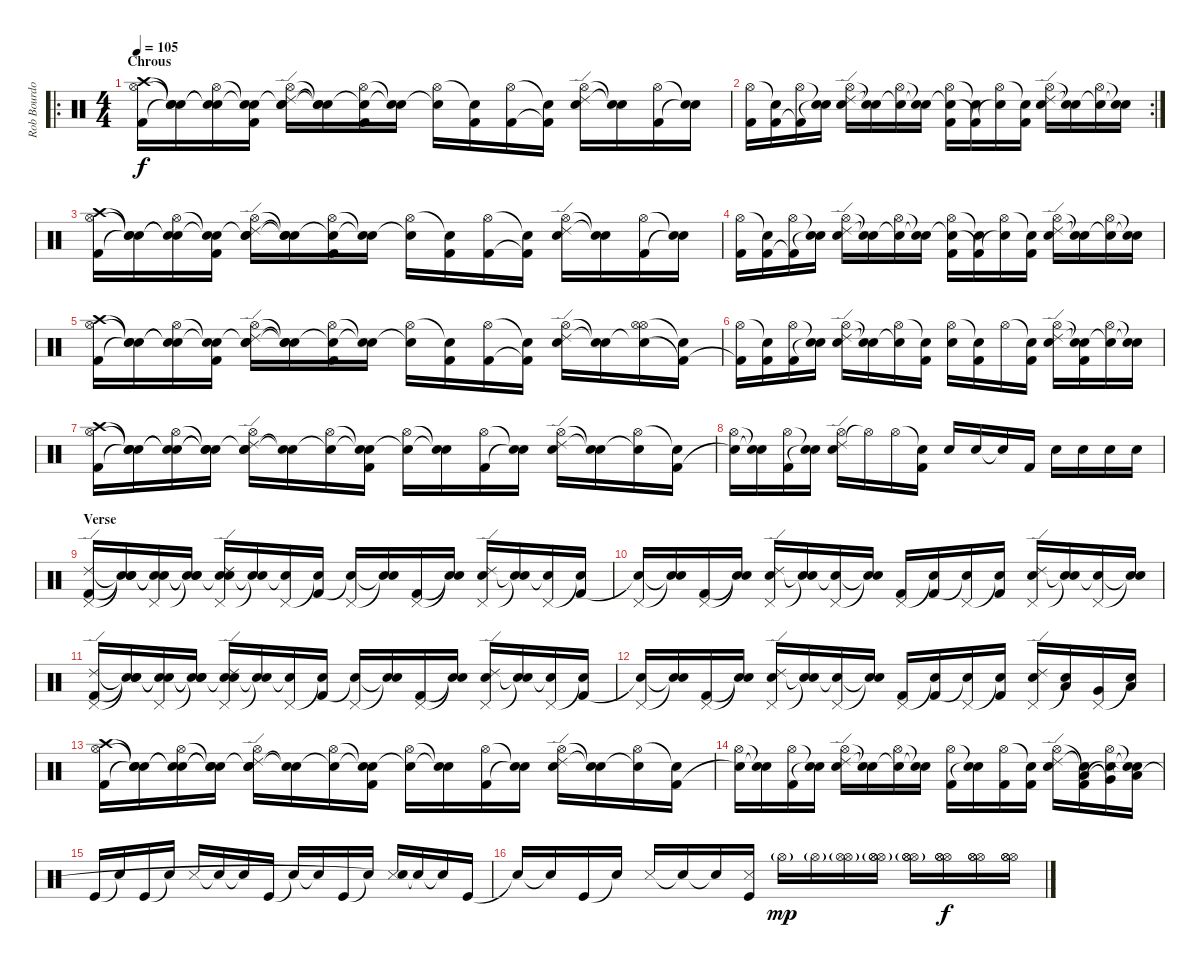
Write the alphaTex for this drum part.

\track ("Rob Bourdon" "Rob Bourdo") {instrument percussion}
\staff {score}
\articulation defaults
\ro
\ts (4 4)
\section ("" "Chrous")
\tempo 105
\clef neutral
\ks c
("Crash high (hit)" "Hi-Hat (open)" "Kick (hit) 2").16{dy f} ("Snare (hit)"{t} "Snare (hit)"{t} "Snare (hit)"{t}).16 ("Snare (hit)"{t} "Hi-Hat (open)" "Snare (hit)"{t}).16 ("Snare (hit)"{t} "Snare (hit)"{t} "Kick (hit) 2").16 ("Snare (hit)"{t} "Hi-Hat (open)" "Ride (edge) 2" "Electric Snare (hit)").16 ("Snare (hit)"{t} "Snare (hit)"{t} "Snare (hit)"{t}).16 ("Snare (hit)"{t} "Hi-Hat (open)" "Kick (hit) 2").16 ("Snare (hit)"{t} "Snare (hit)"{t}).16 ("Hi-Hat (open)" "Snare (hit)"{t}).16 ("Snare (hit)"{t} "Kick (hit) 2").16 ("Hi-Hat (open)" "Kick (hit) 2").16 ("Snare (hit)"{t} "Kick (hit) 2"{t}).16 ("Hi-Hat (open)" "Ride (edge) 2" "Electric Snare (hit)").16 ("Snare (hit)"{t} "Snare (hit)"{t}).16 ("Hi-Hat (open)" "Kick (hit) 2").16 ("Snare (hit)"{t} "Snare (hit)"{t}).16 |
\rc 2
("Hi-Hat (open)" "Kick (hit) 2").16 ("Snare (hit)"{t} "Kick (hit) 2").16 ("Hi-Hat (open)" "Kick (hit) 2"{t}).16 ("Snare (hit)"{t} "Snare (hit)"{t}).16 ("Hi-Hat (open)" "Ride (edge) 2" "Electric Snare (hit)").16 ("Snare (hit)"{t} "Snare (hit)"{t}).16 ("Hi-Hat (open)" "Snare (hit)"{t}).16 ("Snare (hit)"{t} "Snare (hit)"{t}).16 ("Hi-Hat (open)" "Snare (hit)"{t} "Kick (hit) 2").16 ("Snare (hit)"{t} "Kick (hit) 2"{t}).16 ("Hi-Hat (open)" "Snare (hit)"{t}).16 ("Snare (hit)"{t} "Kick (hit) 2").16 ("Hi-Hat (open)" "Ride (edge) 2" "Electric Snare (hit)").16 ("Snare (hit)"{t} "Snare (hit)"{t}).16 ("Hi-Hat (open)" "Snare (hit)"{t}).16 ("Snare (hit)"{t} "Snare (hit)"{t}).16 |
("Crash high (hit)" "Hi-Hat (open)" "Kick (hit) 2").16 ("Snare (hit)"{t} "Snare (hit)"{t} "Snare (hit)"{t}).16 ("Snare (hit)"{t} "Hi-Hat (open)" "Snare (hit)"{t}).16 ("Snare (hit)"{t} "Snare (hit)"{t} "Kick (hit) 2").16 ("Snare (hit)"{t} "Hi-Hat (open)" "Ride (edge) 2" "Electric Snare (hit)").16 ("Snare (hit)"{t} "Snare (hit)"{t} "Snare (hit)"{t}).16 ("Snare (hit)"{t} "Hi-Hat (open)" "Kick (hit) 2").16 ("Snare (hit)"{t} "Snare (hit)"{t}).16 ("Hi-Hat (open)" "Snare (hit)"{t}).16 ("Snare (hit)"{t} "Kick (hit) 2").16 ("Hi-Hat (open)" "Kick (hit) 2").16 ("Snare (hit)"{t} "Kick (hit) 2"{t}).16 ("Hi-Hat (open)" "Ride (edge) 2" "Electric Snare (hit)").16 ("Snare (hit)"{t} "Snare (hit)"{t}).16 ("Hi-Hat (open)" "Kick (hit) 2").16 ("Snare (hit)"{t} "Snare (hit)"{t}).16 |
("Hi-Hat (open)" "Kick (hit) 2").16 ("Snare (hit)"{t} "Kick (hit) 2").16 ("Hi-Hat (open)" "Kick (hit) 2"{t}).16 ("Snare (hit)"{t} "Snare (hit)"{t}).16 ("Hi-Hat (open)" "Ride (edge) 2" "Electric Snare (hit)").16 ("Snare (hit)"{t} "Snare (hit)"{t}).16 ("Hi-Hat (open)" "Snare (hit)"{t}).16 ("Snare (hit)"{t} "Snare (hit)"{t}).16 ("Hi-Hat (open)" "Snare (hit)"{t} "Kick (hit) 2").16 ("Snare (hit)"{t} "Kick (hit) 2"{t}).16 ("Hi-Hat (open)" "Snare (hit)"{t}).16 ("Snare (hit)"{t} "Kick (hit) 2").16 ("Hi-Hat (open)" "Ride (edge) 2" "Electric Snare (hit)").16 ("Snare (hit)"{t} "Snare (hit)"{t}).16 ("Hi-Hat (open)" "Snare (hit)"{t}).16 ("Snare (hit)"{t} "Snare (hit)"{t}).16 |
("Crash high (hit)" "Hi-Hat (open)" "Kick (hit) 2").16 ("Snare (hit)"{t} "Snare (hit)"{t} "Snare (hit)"{t}).16 ("Snare (hit)"{t} "Hi-Hat (open)" "Snare (hit)"{t}).16 ("Snare (hit)"{t} "Snare (hit)"{t} "Kick (hit) 2").16 ("Snare (hit)"{t} "Hi-Hat (open)" "Ride (edge) 2" "Electric Snare (hit)").16 ("Snare (hit)"{t} "Snare (hit)"{t} "Snare (hit)"{t}).16 ("Snare (hit)"{t} "Hi-Hat (open)" "Kick (hit) 2").16 ("Snare (hit)"{t} "Snare (hit)"{t}).16 ("Hi-Hat (open)" "Snare (hit)"{t}).16 ("Snare (hit)"{t} "Kick (hit) 2").16 ("Hi-Hat (open)" "Kick (hit) 2").16 ("Snare (hit)"{t} "Kick (hit) 2"{t}).16 ("Hi-Hat (open)" "Ride (edge) 2" "Electric Snare (hit)").16 ("Snare (hit)"{t} "Snare (hit)"{t}).16 ("Hi-Hat (open)" "Snare (hit)"{t} "Hi-Hat (open)").16 ("Snare (hit)"{t} "Kick (hit) 2"{t}).16 |
("Hi-Hat (open)" "Kick (hit) 2"{t}).16 ("Snare (hit)"{t} "Kick (hit) 2").16 ("Hi-Hat (open)" "Kick (hit) 2").16 ("Snare (hit)"{t} "Snare (hit)"{t}).16 ("Hi-Hat (open)" "Ride (edge) 2" "Electric Snare (hit)").16 ("Snare (hit)"{t} "Snare (hit)"{t}).16 ("Hi-Hat (open)" "Snare (hit)"{t}).16 ("Snare (hit)"{t} "Kick (hit) 2").16 ("Hi-Hat (open)" "Electric Snare (hit)").16 ("Snare (hit)"{t} "Kick (hit) 2").16 "Hi-Hat (open)".16 ("Snare (hit)"{t} "Kick (hit) 2").16 ("Hi-Hat (open)" "Ride (edge) 2" "Electric Snare (hit)").16 ("Snare (hit)"{t} "Snare (hit)"{t} "Kick (hit) 2").16 ("Hi-Hat (open)" "Snare (hit)"{t}).16 ("Snare (hit)"{t} "Snare (hit)"{t}).16 |
("Crash high (hit)" "Hi-Hat (open)" "Kick (hit) 2").16 ("Snare (hit)"{t} "Snare (hit)"{t} "Snare (hit)"{t}).16 ("Snare (hit)"{t} "Hi-Hat (open)" "Snare (hit)"{t}).16 ("Snare (hit)"{t} "Snare (hit)"{t} "Snare (hit)"{t}).16 ("Snare (hit)"{t} "Ride (edge) 2" "Hi-Hat (open)" "Electric Snare (hit)").16 ("Snare (hit)"{t} "Snare (hit)"{t}).16 ("Hi-Hat (open)" "Snare (hit)"{t}).16 ("Snare (hit)"{t} "Snare (hit)"{t} "Kick (hit) 2").16 ("Hi-Hat (open)" "Snare (hit)"{t}).16 ("Snare (hit)"{t} "Snare (hit)"{t}).16 ("Hi-Hat (open)" "Kick (hit) 2").16 ("Snare (hit)"{t} "Snare (hit)"{t}).16 ("Ride (edge) 2" "Hi-Hat (open)" "Electric Snare (hit)").16 ("Snare (hit)"{t} "Snare (hit)"{t}).16 ("Hi-Hat (open)" "Snare (hit)"{t}).16 ("Snare (hit)"{t} "Kick (hit) 2").16 |
("Hi-Hat (open)" "Snare (hit)"{t}).16 ("Snare (hit)"{t} "Snare (hit)"{t}).16 ("Hi-Hat (open)" "Kick (hit) 2").16 ("Snare (hit)"{t} "Snare (hit)"{t}).16 ("Ride (edge) 2" "Hi-Hat (open)" "Electric Snare (hit)").16 "Hi-Hat (open)"{t}.16 "Hi-Hat (open)".16 ("Snare (hit)"{t} "Kick (hit) 2").16 "Electric Snare (hit)".16 "Electric Snare (hit)".16 "Snare (hit)"{t}.16 "Kick (hit) 2".16 "Electric Snare (hit)".16 "Electric Snare (hit)".16 "Electric Snare (hit)".16 "Electric Snare (hit)".16 |
\section ("" "Verse")
("Ride (edge) 2" "Pedal Hi-Hat (hit)" "Kick (hit) 2").16 ("Snare (hit)"{t} "Snare (hit)"{t} "Snare (hit)"{t}).16 ("Snare (hit)"{t} "Pedal Hi-Hat (hit)" "Snare (hit)"{t}).16 ("Snare (hit)"{t} "Snare (hit)"{t} "Snare (hit)"{t}).16 ("Snare (hit)"{t} "Pedal Hi-Hat (hit)" "Ride (edge) 2" "Electric Snare (hit)").16 ("Snare (hit)"{t} "Snare (hit)"{t}).16 ("Pedal Hi-Hat (hit)" "Snare (hit)"{t}).16 ("Snare (hit)"{t} "Kick (hit) 2").16 ("Pedal Hi-Hat (hit)" "Snare (hit)"{t}).16 ("Snare (hit)"{t} "Snare (hit)"{t}).16 ("Pedal Hi-Hat (hit)" "Kick (hit) 2").16 ("Snare (hit)"{t} "Snare (hit)"{t}).16 ("Pedal Hi-Hat (hit)" "Ride (edge) 2" "Electric Snare (hit)").16 ("Snare (hit)"{t} "Snare (hit)"{t}).16 ("Pedal Hi-Hat (hit)" "Snare (hit)"{t}).16 ("Snare (hit)"{t} "Kick (hit) 2").16 |
("Pedal Hi-Hat (hit)" "Snare (hit)"{t}).16 ("Snare (hit)"{t} "Snare (hit)"{t}).16 ("Pedal Hi-Hat (hit)" "Kick (hit) 2").16 ("Snare (hit)"{t} "Snare (hit)"{t}).16 ("Pedal Hi-Hat (hit)" "Ride (edge) 2" "Electric Snare (hit)").16 ("Snare (hit)"{t} "Snare (hit)"{t}).16 ("Pedal Hi-Hat (hit)" "Snare (hit)"{t}).16 ("Snare (hit)"{t} "Snare (hit)"{t}).16 ("Pedal Hi-Hat (hit)" "Kick (hit) 2").16 ("Snare (hit)"{t} "Kick (hit) 2").16 ("Pedal Hi-Hat (hit)" "Snare (hit)"{t}).16 ("Snare (hit)"{t} "Kick (hit) 2").16 ("Pedal Hi-Hat (hit)" "Ride (edge) 2" "Electric Snare (hit)").16 ("Snare (hit)"{t} "Snare (hit)"{t}).16 ("Pedal Hi-Hat (hit)" "Snare (hit)"{t}).16 ("Snare (hit)"{t} "Snare (hit)"{t}).16 |
("Ride (edge) 2" "Pedal Hi-Hat (hit)" "Kick (hit) 2").16 ("Snare (hit)"{t} "Snare (hit)"{t} "Snare (hit)"{t}).16 ("Snare (hit)"{t} "Pedal Hi-Hat (hit)" "Snare (hit)"{t}).16 ("Snare (hit)"{t} "Snare (hit)"{t} "Snare (hit)"{t}).16 ("Snare (hit)"{t} "Pedal Hi-Hat (hit)" "Ride (edge) 2" "Electric Snare (hit)").16 ("Snare (hit)"{t} "Snare (hit)"{t}).16 ("Pedal Hi-Hat (hit)" "Snare (hit)"{t}).16 ("Snare (hit)"{t} "Kick (hit) 2").16 ("Pedal Hi-Hat (hit)" "Snare (hit)"{t}).16 ("Snare (hit)"{t} "Snare (hit)"{t}).16 ("Pedal Hi-Hat (hit)" "Kick (hit) 2").16 ("Snare (hit)"{t} "Snare (hit)"{t}).16 ("Pedal Hi-Hat (hit)" "Ride (edge) 2" "Electric Snare (hit)").16 ("Snare (hit)"{t} "Snare (hit)"{t}).16 ("Pedal Hi-Hat (hit)" "Snare (hit)"{t}).16 ("Snare (hit)"{t} "Kick (hit) 2").16 |
("Pedal Hi-Hat (hit)" "Snare (hit)"{t}).16 ("Snare (hit)"{t} "Snare (hit)"{t}).16 ("Pedal Hi-Hat (hit)" "Kick (hit) 2").16 ("Snare (hit)"{t} "Snare (hit)"{t}).16 ("Pedal Hi-Hat (hit)" "Ride (edge) 2" "Electric Snare (hit)").16 ("Snare (hit)"{t} "Snare (hit)"{t}).16 ("Pedal Hi-Hat (hit)" "Snare (hit)"{t}).16 ("Snare (hit)"{t} "Snare (hit)"{t}).16 ("Pedal Hi-Hat (hit)" "Kick (hit) 2").16 ("Snare (hit)"{t} "Kick (hit) 2").16 ("Pedal Hi-Hat (hit)" "Snare (hit)"{t}).16 ("Snare (hit)"{t} "Kick (hit) 2").16 ("Pedal Hi-Hat (hit)" "Ride (edge) 2" "Electric Snare (hit)").16 ("Snare (hit)"{t} "Low Tom (hit)").16 ("Pedal Hi-Hat (hit)" "Very Low Tom (hit)").16 ("Snare (hit)"{t} "Low Floor Tom (hit)").16 |
("Crash high (hit)" "Hi-Hat (open)" "Kick (hit) 2").16 ("Snare (hit)"{t} "Snare (hit)"{t} "Snare (hit)"{t}).16 ("Snare (hit)"{t} "Hi-Hat (open)" "Snare (hit)"{t}).16 ("Snare (hit)"{t} "Snare (hit)"{t} "Snare (hit)"{t}).16 ("Snare (hit)"{t} "Ride (edge) 2" "Hi-Hat (open)" "Electric Snare (hit)").16 ("Snare (hit)"{t} "Snare (hit)"{t}).16 ("Hi-Hat (open)" "Snare (hit)"{t}).16 ("Snare (hit)"{t} "Snare (hit)"{t} "Kick (hit) 2").16 ("Hi-Hat (open)" "Snare (hit)"{t}).16 ("Snare (hit)"{t} "Snare (hit)"{t}).16 ("Hi-Hat (open)" "Kick (hit) 2").16 ("Snare (hit)"{t} "Snare (hit)"{t}).16 ("Ride (edge) 2" "Hi-Hat (open)" "Electric Snare (hit)").16 ("Snare (hit)"{t} "Snare (hit)"{t}).16 ("Hi-Hat (open)" "Snare (hit)"{t}).16 ("Snare (hit)"{t} "Kick (hit) 2").16 |
("Hi-Hat (open)" "Snare (hit)"{t}).16 ("Snare (hit)"{t} "Snare (hit)"{t}).16 ("Hi-Hat (open)" "Kick (hit) 2").16 ("Snare (hit)"{t} "Snare (hit)"{t}).16 ("Ride (edge) 2" "Hi-Hat (open)" "Electric Snare (hit)").16 ("Snare (hit)"{t} "Snare (hit)"{t}).16 ("Hi-Hat (open)" "Snare (hit)"{t}).16 ("Snare (hit)"{t} "Snare (hit)"{t}).16 ("Hi-Hat (open)" "Kick (hit) 2").16 ("Snare (hit)"{t} "Snare (hit)"{t}).16 ("Hi-Hat (open)" "Kick (hit) 2").16 ("Snare (hit)"{t} "Kick (hit) 2").16 ("Ride (edge) 2" "Hi-Hat (open)" "Electric Snare (hit)").16 ("Snare (hit)"{t} "Low Tom (hit)"{t} "Kick (hit) 2").16 ("Hi-Hat (open)" "Very Low Tom (hit)"{t} "Snare (hit)"{t}).16 ("Snare (hit)"{t} "Low Floor Tom (hit)"{t} "Snare (hit)"{t}).16 |
"Kick (hit)".16 "Snare (hit)"{t}.16 "Kick (hit)".16 "Snare (hit)"{t}.16 "Snare (side stick) 3".16 "Snare (hit)"{t}.16 "Snare (hit)"{t}.16 "Kick (hit)".16 "Snare (hit)"{t}.16 "Snare (hit)"{t}.16 "Kick (hit)".16 "Snare (hit)"{t}.16 ("Snare (side stick) 3" "Snare (hit)"{t}).16 "Snare (hit)"{t}.16 "Snare (hit)"{t}.16 "Kick (hit)".16 |
"Snare (hit)"{t}.16 "Snare (hit)"{t}.16 "Kick (hit)".16 "Snare (hit)"{t}.16 "Snare (side stick) 3".16 "Snare (hit)"{t}.16 "Snare (hit)"{t}.16 ("Snare (side stick) 3" "Kick (hit)").16 "Hi-Hat (open)"{g}.16{dy mp} "Hi-Hat (open)"{g}.16 ("Hi-Hat (open)"{g} "Hi-Hat (open)"{g}).16 ("Hi-Hat (open)"{g} "Hi-Hat (open)"{g} "Hi-Hat (open)"{g}).16 ("Hi-Hat (open)" "Hi-Hat (open)" "Hi-Hat (open)"{g}).16 ("Hi-Hat (open)" "Hi-Hat (open)" "Hi-Hat (open)").16{dy f} ("Hi-Hat (open)" "Hi-Hat (open)" "Hi-Hat (open)").16 ("Hi-Hat (open)" "Hi-Hat (open)" "Hi-Hat (open)").16
